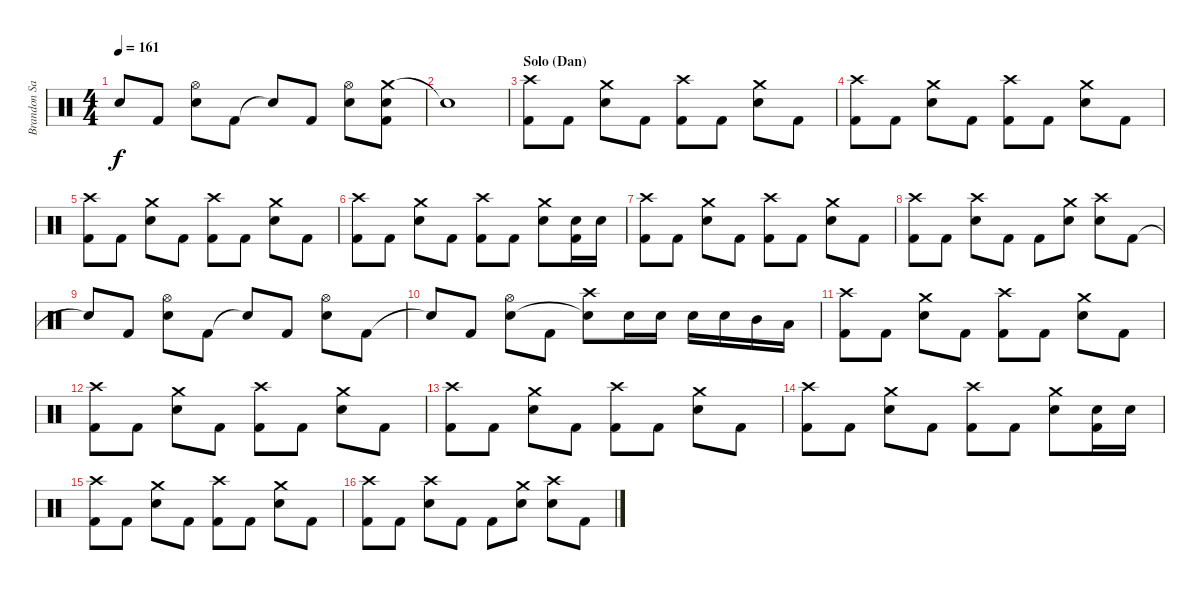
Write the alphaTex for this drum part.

\track ("Brandon Saller" "Brandon Sa") {instrument percussion}
\staff {score}
\articulation defaults
\ts (4 4)
\tempo 161
\clef neutral
\ks c "Snare (hit)"{t}.8{dy f} "Kick (hit) 2".8
("Hi-Hat (open)" "Electric Snare (hit)").8 "Kick (hit) 2".8 "Snare (hit)"{t}.8 "Kick (hit) 2".8 ("Hi-Hat (open)" "Electric Snare (hit)").8 ("Crash medium (hit)" "Snare (hit) 2" "Kick (hit) 2").8 |
"Snare (hit)"{t}.1 |
\section ("" "Solo (Dan)")
("Crash high (hit)" "Kick (hit) 2").8 "Kick (hit) 2".8 ("Crash medium (hit)" "Electric Snare (hit)").8 "Kick (hit) 2".8 ("Crash high (hit)" "Kick (hit) 2").8 "Kick (hit) 2".8 ("Crash medium (hit)" "Electric Snare (hit)").8 "Kick (hit) 2".8 |
("Crash high (hit)" "Kick (hit) 2").8 "Kick (hit) 2".8 ("Crash medium (hit)" "Electric Snare (hit)").8 "Kick (hit) 2".8 ("Crash high (hit)" "Kick (hit) 2").8 "Kick (hit) 2".8 ("Crash medium (hit)" "Electric Snare (hit)").8 "Kick (hit) 2".8 |
("Crash high (hit)" "Kick (hit) 2").8 "Kick (hit) 2".8 ("Crash medium (hit)" "Electric Snare (hit)").8 "Kick (hit) 2".8 ("Crash high (hit)" "Kick (hit) 2").8 "Kick (hit) 2".8 ("Crash medium (hit)" "Electric Snare (hit)").8 "Kick (hit) 2".8 |
("Crash high (hit)" "Kick (hit) 2").8 "Kick (hit) 2".8 ("Crash medium (hit)" "Electric Snare (hit)").8 "Kick (hit) 2".8 ("Crash high (hit)" "Kick (hit) 2").8 "Kick (hit) 2".8 ("Crash medium (hit)" "Electric Snare (hit)").8 ("Electric Snare (hit)" "Kick (hit) 2").16 "Electric Snare (hit)".16 |
("Crash high (hit)" "Kick (hit) 2").8 "Kick (hit) 2".8 ("Crash medium (hit)" "Electric Snare (hit)").8 "Kick (hit) 2".8 ("Crash high (hit)" "Kick (hit) 2").8 "Kick (hit) 2".8 ("Crash medium (hit)" "Electric Snare (hit)").8 "Kick (hit) 2".8 |
("Crash high (hit)" "Kick (hit) 2").8 "Kick (hit) 2".8 ("Crash high (hit)" "Electric Snare (hit)").8 "Kick (hit) 2".8 "Kick (hit) 2".8 ("Crash medium (hit)" "Snare (hit) 2").8 ("Crash high (hit)" "Snare (hit) 2").8 "Kick (hit) 2".8 |
"Snare (hit)"{t}.8 "Kick (hit) 2".8 ("Hi-Hat (open)" "Electric Snare (hit)").8 "Kick (hit) 2".8 "Snare (hit)"{t}.8 "Kick (hit) 2".8 ("Hi-Hat (open)" "Electric Snare (hit)").8 "Kick (hit) 2".8 |
"Snare (hit)"{t}.8 "Kick (hit) 2".8 ("Hi-Hat (open)" "Electric Snare (hit)").8 "Kick (hit) 2".8 ("Crash high (hit)" "Snare (hit)"{t}).8 "Electric Snare (hit)".16 "Electric Snare (hit)".16 "Snare (hit) 2".16 "Snare (hit) 2".16 "Mid Tom (hit)".16 "Low Tom (hit)".16 |
("Crash high (hit)" "Kick (hit) 2").8 "Kick (hit) 2".8 ("Crash medium (hit)" "Electric Snare (hit)").8 "Kick (hit) 2".8 ("Crash high (hit)" "Kick (hit) 2").8 "Kick (hit) 2".8 ("Crash medium (hit)" "Electric Snare (hit)").8 "Kick (hit) 2".8 |
("Crash high (hit)" "Kick (hit) 2").8 "Kick (hit) 2".8 ("Crash medium (hit)" "Electric Snare (hit)").8 "Kick (hit) 2".8 ("Crash high (hit)" "Kick (hit) 2").8 "Kick (hit) 2".8 ("Crash medium (hit)" "Electric Snare (hit)").8 "Kick (hit) 2".8 |
("Crash high (hit)" "Kick (hit) 2").8 "Kick (hit) 2".8 ("Crash medium (hit)" "Electric Snare (hit)").8 "Kick (hit) 2".8 ("Crash high (hit)" "Kick (hit) 2").8 "Kick (hit) 2".8 ("Crash medium (hit)" "Electric Snare (hit)").8 "Kick (hit) 2".8 |
("Crash high (hit)" "Kick (hit) 2").8 "Kick (hit) 2".8 ("Crash medium (hit)" "Electric Snare (hit)").8 "Kick (hit) 2".8 ("Crash high (hit)" "Kick (hit) 2").8 "Kick (hit) 2".8 ("Crash medium (hit)" "Electric Snare (hit)").8 ("Electric Snare (hit)" "Kick (hit) 2").16 "Electric Snare (hit)".16 |
("Crash high (hit)" "Kick (hit) 2").8 "Kick (hit) 2".8 ("Crash medium (hit)" "Electric Snare (hit)").8 "Kick (hit) 2".8 ("Crash high (hit)" "Kick (hit) 2").8 "Kick (hit) 2".8 ("Crash medium (hit)" "Electric Snare (hit)").8 "Kick (hit) 2".8 |
("Crash high (hit)" "Kick (hit) 2").8 "Kick (hit) 2".8 ("Crash high (hit)" "Electric Snare (hit)").8 "Kick (hit) 2".8 "Kick (hit) 2".8 ("Crash medium (hit)" "Snare (hit) 2").8 ("Crash high (hit)" "Snare (hit) 2").8 "Kick (hit) 2".8
